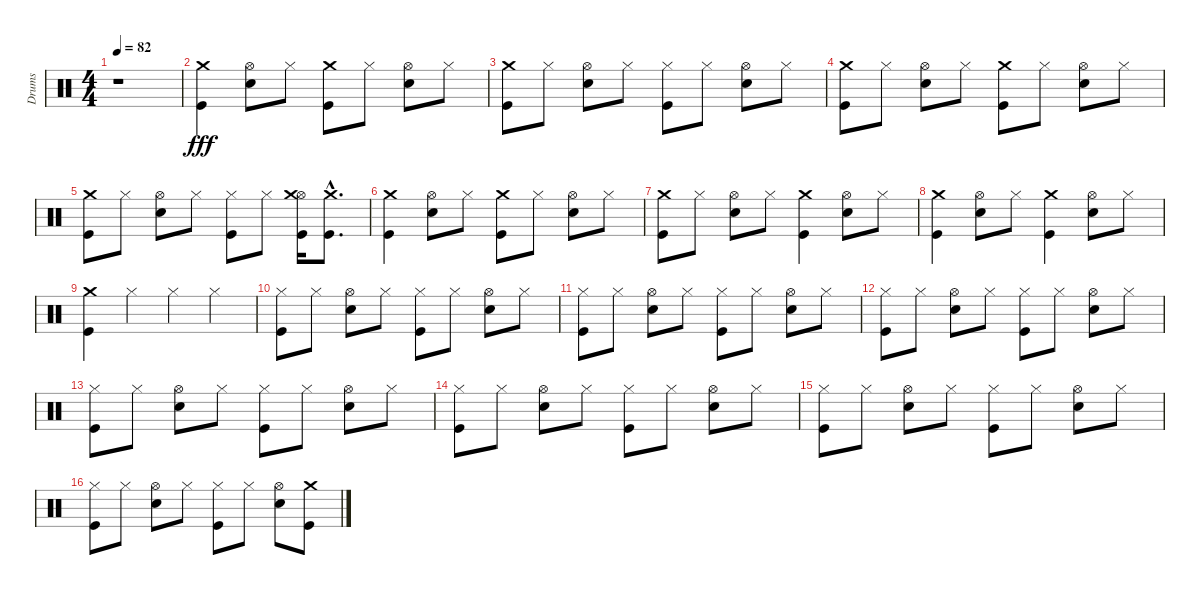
\track ("Drums" "Drums") {instrument percussion}
\staff {score}
\articulation defaults
\ts (4 4)
\tempo 82
\clef neutral
\ks c
r.1{dy fff} |
("Crash medium (hit)" "Kick (hit)").4 ("Hi-Hat (open)" "Snare (hit) 2").8 "Hi-Hat (closed)".8 ("Crash medium (hit)" "Kick (hit)").8 "Hi-Hat (closed)".8 ("Hi-Hat (open)" "Snare (hit) 2").8 "Hi-Hat (closed)".8 |
("Crash medium (hit)" "Kick (hit)").8 "Hi-Hat (closed)".8 ("Hi-Hat (open)" "Snare (hit) 2").8 "Hi-Hat (closed)".8 ("Hi-Hat (closed)" "Kick (hit)").8 "Hi-Hat (closed)".8 ("Hi-Hat (open)" "Snare (hit) 2").8 "Hi-Hat (closed)".8 |
("Crash medium (hit)" "Kick (hit)").8 "Hi-Hat (closed)".8 ("Hi-Hat (open)" "Snare (hit) 2").8 "Hi-Hat (closed)".8 ("Crash medium (hit)" "Kick (hit)").8 "Hi-Hat (closed)".8 ("Hi-Hat (open)" "Snare (hit) 2").8 "Hi-Hat (closed)".8 |
("Crash medium (hit)" "Kick (hit)").8 "Hi-Hat (closed)".8 ("Hi-Hat (open)" "Snare (hit) 2").8 "Hi-Hat (closed)".8 ("Hi-Hat (closed)" "Kick (hit)").8 "Hi-Hat (closed)".8 ("Hi-Hat (open)" "Crash medium (hit)" "Kick (hit)").16 ("Crash medium (hit)"{hac} "Kick (hit)"{hac}).8{d} |
("Crash medium (hit)" "Kick (hit)").4 ("Hi-Hat (open)" "Snare (hit) 2").8 "Hi-Hat (closed)".8 ("Crash medium (hit)" "Kick (hit)").8 "Hi-Hat (closed)".8 ("Hi-Hat (open)" "Snare (hit) 2").8 "Hi-Hat (closed)".8 |
("Crash medium (hit)" "Kick (hit)").8 "Hi-Hat (closed)".8 ("Hi-Hat (open)" "Snare (hit) 2").8 "Hi-Hat (closed)".8 ("Crash medium (hit)" "Kick (hit)").4 ("Hi-Hat (open)" "Snare (hit) 2").8 "Hi-Hat (closed)".8 |
("Crash medium (hit)" "Kick (hit)").4 ("Hi-Hat (open)" "Snare (hit) 2").8 "Hi-Hat (closed)".8 ("Crash medium (hit)" "Kick (hit)").4 ("Hi-Hat (open)" "Snare (hit) 2").8 "Hi-Hat (closed)".8 |
("Crash medium (hit)" "Kick (hit)").4 "Hi-Hat (closed)".4 "Hi-Hat (closed)".4 "Hi-Hat (closed)".4 |
("Hi-Hat (closed)" "Kick (hit)").8 "Hi-Hat (closed)".8 ("Hi-Hat (open)" "Snare (hit) 2").8 "Hi-Hat (closed)".8 ("Hi-Hat (closed)" "Kick (hit)").8 "Hi-Hat (closed)".8 ("Hi-Hat (open)" "Snare (hit) 2").8 "Hi-Hat (closed)".8 |
("Hi-Hat (closed)" "Kick (hit)").8 "Hi-Hat (closed)".8 ("Hi-Hat (open)" "Snare (hit) 2").8 "Hi-Hat (closed)".8 ("Hi-Hat (closed)" "Kick (hit)").8 "Hi-Hat (closed)".8 ("Hi-Hat (open)" "Snare (hit) 2").8 "Hi-Hat (closed)".8 |
("Hi-Hat (closed)" "Kick (hit)").8 "Hi-Hat (closed)".8 ("Hi-Hat (open)" "Snare (hit) 2").8 "Hi-Hat (closed)".8 ("Hi-Hat (closed)" "Kick (hit)").8 "Hi-Hat (closed)".8 ("Hi-Hat (open)" "Snare (hit) 2").8 "Hi-Hat (closed)".8 |
("Hi-Hat (closed)" "Kick (hit)").8 "Hi-Hat (closed)".8 ("Hi-Hat (open)" "Snare (hit) 2").8 "Hi-Hat (closed)".8 ("Hi-Hat (closed)" "Kick (hit)").8 "Hi-Hat (closed)".8 ("Hi-Hat (open)" "Snare (hit) 2").8 "Hi-Hat (closed)".8 |
("Hi-Hat (closed)" "Kick (hit)").8 "Hi-Hat (closed)".8 ("Hi-Hat (open)" "Snare (hit) 2").8 "Hi-Hat (closed)".8 ("Hi-Hat (closed)" "Kick (hit)").8 "Hi-Hat (closed)".8 ("Hi-Hat (open)" "Snare (hit) 2").8 "Hi-Hat (closed)".8 |
("Hi-Hat (closed)" "Kick (hit)").8 "Hi-Hat (closed)".8 ("Hi-Hat (open)" "Snare (hit) 2").8 "Hi-Hat (closed)".8 ("Hi-Hat (closed)" "Kick (hit)").8 "Hi-Hat (closed)".8 ("Hi-Hat (open)" "Snare (hit) 2").8 "Hi-Hat (closed)".8 |
("Hi-Hat (closed)" "Kick (hit)").8 "Hi-Hat (closed)".8 ("Hi-Hat (open)" "Snare (hit) 2").8 "Hi-Hat (closed)".8 ("Hi-Hat (closed)" "Kick (hit)").8 "Hi-Hat (closed)".8 ("Hi-Hat (open)" "Snare (hit) 2").8 ("Crash medium (hit)" "Kick (hit)").8
